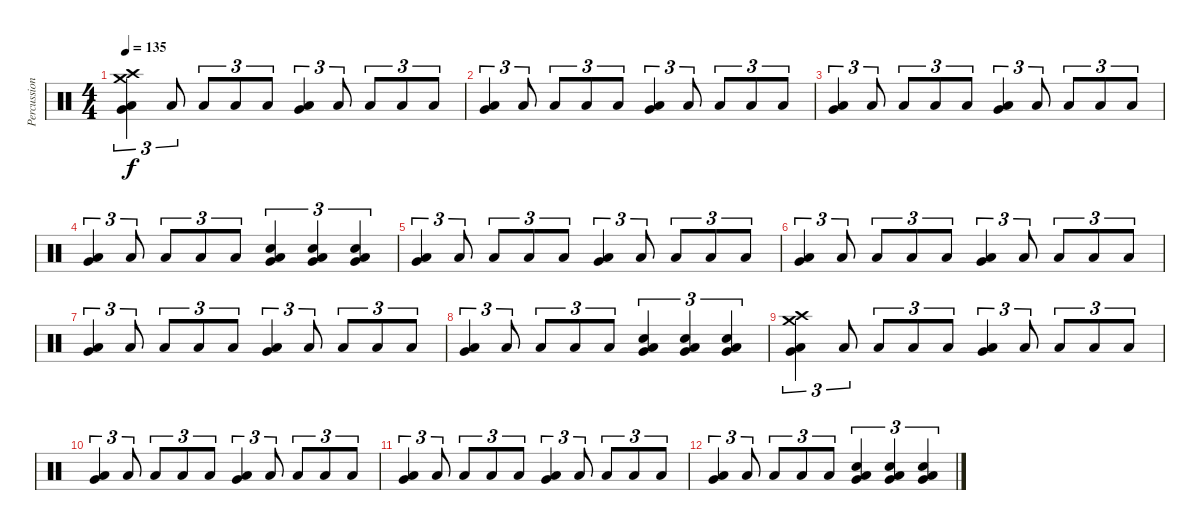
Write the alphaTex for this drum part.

\track ("Percussion" "Percussion") {instrument percussion}
\staff {score}
\articulation defaults
\ts (4 4)
\tempo 135
\clef neutral
\ks c
("Crash medium (hit)" "Crash high (hit)" "Very Low Tom (hit)" "Low Floor Tom (hit)").4{tu (3 2) dy f} "Low Floor Tom (hit)".8{tu (3 2)} "Low Floor Tom (hit)".8{tu (3 2)} "Low Floor Tom (hit)".8{tu (3 2)} "Low Floor Tom (hit)".8{tu (3 2)} ("Very Low Tom (hit)" "Low Floor Tom (hit)").4{tu (3 2)} "Low Floor Tom (hit)".8{tu (3 2)} "Low Floor Tom (hit)".8{tu (3 2)} "Low Floor Tom (hit)".8{tu (3 2)} "Low Floor Tom (hit)".8{tu (3 2)} |
("Very Low Tom (hit)" "Low Floor Tom (hit)").4{tu (3 2)} "Low Floor Tom (hit)".8{tu (3 2)} "Low Floor Tom (hit)".8{tu (3 2)} "Low Floor Tom (hit)".8{tu (3 2)} "Low Floor Tom (hit)".8{tu (3 2)} ("Very Low Tom (hit)" "Low Floor Tom (hit)").4{tu (3 2)} "Low Floor Tom (hit)".8{tu (3 2)} "Low Floor Tom (hit)".8{tu (3 2)} "Low Floor Tom (hit)".8{tu (3 2)} "Low Floor Tom (hit)".8{tu (3 2)} |
("Very Low Tom (hit)" "Low Floor Tom (hit)").4{tu (3 2)} "Low Floor Tom (hit)".8{tu (3 2)} "Low Floor Tom (hit)".8{tu (3 2)} "Low Floor Tom (hit)".8{tu (3 2)} "Low Floor Tom (hit)".8{tu (3 2)} ("Very Low Tom (hit)" "Low Floor Tom (hit)").4{tu (3 2)} "Low Floor Tom (hit)".8{tu (3 2)} "Low Floor Tom (hit)".8{tu (3 2)} "Low Floor Tom (hit)".8{tu (3 2)} "Low Floor Tom (hit)".8{tu (3 2)} |
("Very Low Tom (hit)" "Low Floor Tom (hit)").4{tu (3 2)} "Low Floor Tom (hit)".8{tu (3 2)} "Low Floor Tom (hit)".8{tu (3 2)} "Low Floor Tom (hit)".8{tu (3 2)} "Low Floor Tom (hit)".8{tu (3 2)} ("Hand Clap (hit)" "Very Low Tom (hit)" "Low Floor Tom (hit)").4{tu (3 2)} ("Hand Clap (hit)" "Very Low Tom (hit)" "Low Floor Tom (hit)").4{tu (3 2)} ("Hand Clap (hit)" "Very Low Tom (hit)" "Low Floor Tom (hit)").4{tu (3 2)} |
("Very Low Tom (hit)" "Low Floor Tom (hit)").4{tu (3 2)} "Low Floor Tom (hit)".8{tu (3 2)} "Low Floor Tom (hit)".8{tu (3 2)} "Low Floor Tom (hit)".8{tu (3 2)} "Low Floor Tom (hit)".8{tu (3 2)} ("Very Low Tom (hit)" "Low Floor Tom (hit)").4{tu (3 2)} "Low Floor Tom (hit)".8{tu (3 2)} "Low Floor Tom (hit)".8{tu (3 2)} "Low Floor Tom (hit)".8{tu (3 2)} "Low Floor Tom (hit)".8{tu (3 2)} |
("Very Low Tom (hit)" "Low Floor Tom (hit)").4{tu (3 2)} "Low Floor Tom (hit)".8{tu (3 2)} "Low Floor Tom (hit)".8{tu (3 2)} "Low Floor Tom (hit)".8{tu (3 2)} "Low Floor Tom (hit)".8{tu (3 2)} ("Very Low Tom (hit)" "Low Floor Tom (hit)").4{tu (3 2)} "Low Floor Tom (hit)".8{tu (3 2)} "Low Floor Tom (hit)".8{tu (3 2)} "Low Floor Tom (hit)".8{tu (3 2)} "Low Floor Tom (hit)".8{tu (3 2)} |
("Very Low Tom (hit)" "Low Floor Tom (hit)").4{tu (3 2)} "Low Floor Tom (hit)".8{tu (3 2)} "Low Floor Tom (hit)".8{tu (3 2)} "Low Floor Tom (hit)".8{tu (3 2)} "Low Floor Tom (hit)".8{tu (3 2)} ("Very Low Tom (hit)" "Low Floor Tom (hit)").4{tu (3 2)} "Low Floor Tom (hit)".8{tu (3 2)} "Low Floor Tom (hit)".8{tu (3 2)} "Low Floor Tom (hit)".8{tu (3 2)} "Low Floor Tom (hit)".8{tu (3 2)} |
("Very Low Tom (hit)" "Low Floor Tom (hit)").4{tu (3 2)} "Low Floor Tom (hit)".8{tu (3 2)} "Low Floor Tom (hit)".8{tu (3 2)} "Low Floor Tom (hit)".8{tu (3 2)} "Low Floor Tom (hit)".8{tu (3 2)} ("Hand Clap (hit)" "Very Low Tom (hit)" "Low Floor Tom (hit)").4{tu (3 2)} ("Hand Clap (hit)" "Very Low Tom (hit)" "Low Floor Tom (hit)").4{tu (3 2)} ("Hand Clap (hit)" "Very Low Tom (hit)" "Low Floor Tom (hit)").4{tu (3 2)} |
("Crash high (hit)" "Crash medium (hit)" "Very Low Tom (hit)" "Low Floor Tom (hit)").4{tu (3 2)} "Low Floor Tom (hit)".8{tu (3 2)} "Low Floor Tom (hit)".8{tu (3 2)} "Low Floor Tom (hit)".8{tu (3 2)} "Low Floor Tom (hit)".8{tu (3 2)} ("Very Low Tom (hit)" "Low Floor Tom (hit)").4{tu (3 2)} "Low Floor Tom (hit)".8{tu (3 2)} "Low Floor Tom (hit)".8{tu (3 2)} "Low Floor Tom (hit)".8{tu (3 2)} "Low Floor Tom (hit)".8{tu (3 2)} |
("Very Low Tom (hit)" "Low Floor Tom (hit)").4{tu (3 2)} "Low Floor Tom (hit)".8{tu (3 2)} "Low Floor Tom (hit)".8{tu (3 2)} "Low Floor Tom (hit)".8{tu (3 2)} "Low Floor Tom (hit)".8{tu (3 2)} ("Very Low Tom (hit)" "Low Floor Tom (hit)").4{tu (3 2)} "Low Floor Tom (hit)".8{tu (3 2)} "Low Floor Tom (hit)".8{tu (3 2)} "Low Floor Tom (hit)".8{tu (3 2)} "Low Floor Tom (hit)".8{tu (3 2)} |
("Very Low Tom (hit)" "Low Floor Tom (hit)").4{tu (3 2)} "Low Floor Tom (hit)".8{tu (3 2)} "Low Floor Tom (hit)".8{tu (3 2)} "Low Floor Tom (hit)".8{tu (3 2)} "Low Floor Tom (hit)".8{tu (3 2)} ("Very Low Tom (hit)" "Low Floor Tom (hit)").4{tu (3 2)} "Low Floor Tom (hit)".8{tu (3 2)} "Low Floor Tom (hit)".8{tu (3 2)} "Low Floor Tom (hit)".8{tu (3 2)} "Low Floor Tom (hit)".8{tu (3 2)} |
("Very Low Tom (hit)" "Low Floor Tom (hit)").4{tu (3 2)} "Low Floor Tom (hit)".8{tu (3 2)} "Low Floor Tom (hit)".8{tu (3 2)} "Low Floor Tom (hit)".8{tu (3 2)} "Low Floor Tom (hit)".8{tu (3 2)} ("Hand Clap (hit)" "Very Low Tom (hit)" "Low Floor Tom (hit)").4{tu (3 2)} ("Hand Clap (hit)" "Very Low Tom (hit)" "Low Floor Tom (hit)").4{tu (3 2)} ("Hand Clap (hit)" "Very Low Tom (hit)" "Low Floor Tom (hit)").4{tu (3 2)}
